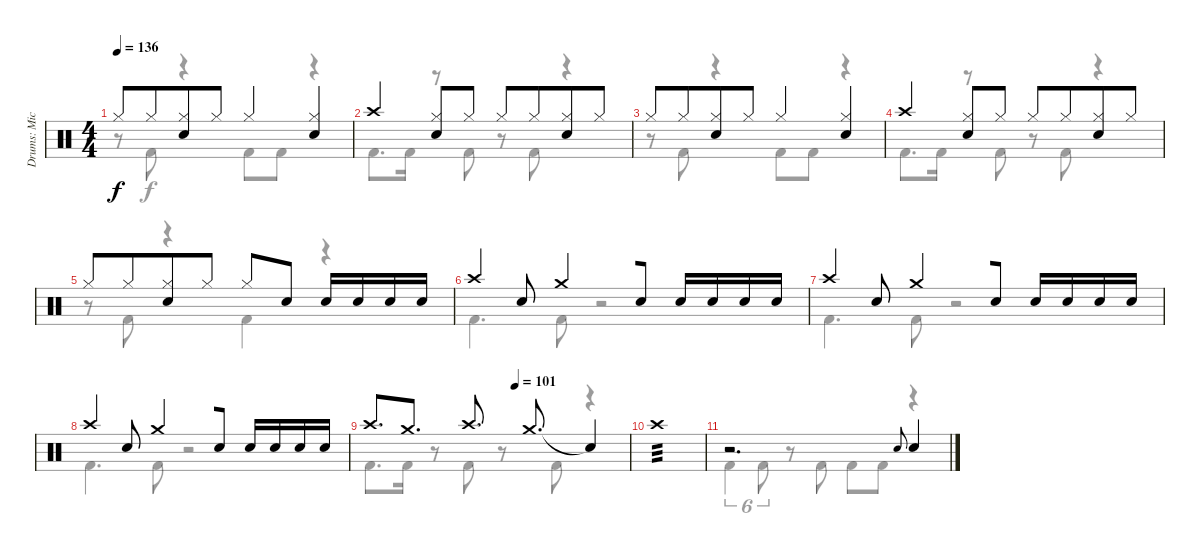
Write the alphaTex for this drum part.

\track ("Drums: Mick" "Drums: Mic") {instrument percussion}
\staff {score}
\articulation defaults
\voice
\ts (4 4)
\tempo 136
\clef neutral
\ks c "Hi-Hat (closed)".8{dy f} "Hi-Hat (closed)".8{beam merge}
("Hi-Hat (closed)" "Snare (hit) 2").8 "Hi-Hat (closed)".8 "Hi-Hat (closed)".4{beam merge} ("Hi-Hat (closed)" "Snare (hit) 2").4 |
"Crash high (hit)".4 ("Hi-Hat (closed)" "Snare (hit) 2").8 "Hi-Hat (closed)".8 "Hi-Hat (closed)".8 "Hi-Hat (closed)".8{beam merge} ("Hi-Hat (closed)" "Snare (hit) 2").8 "Hi-Hat (closed)".8 |
"Hi-Hat (closed)".8 "Hi-Hat (closed)".8{beam merge} ("Hi-Hat (closed)" "Snare (hit) 2").8 "Hi-Hat (closed)".8 "Hi-Hat (closed)".4{beam merge} ("Hi-Hat (closed)" "Snare (hit) 2").4 |
"Crash high (hit)".4 ("Hi-Hat (closed)" "Snare (hit) 2").8 "Hi-Hat (closed)".8 "Hi-Hat (closed)".8 "Hi-Hat (closed)".8{beam merge} ("Hi-Hat (closed)" "Snare (hit) 2").8 "Hi-Hat (closed)".8 |
"Hi-Hat (closed)".8 "Hi-Hat (closed)".8{beam merge} ("Hi-Hat (closed)" "Snare (hit) 2").8 "Hi-Hat (closed)".8 "Hi-Hat (closed)".8{beam merge} "Snare (hit) 2".8 "Snare (hit) 2".16 "Snare (hit) 2".16 "Snare (hit) 2".16 "Snare (hit) 2".16 |
"Crash high (hit)".4 "Snare (hit) 2".8 "Crash medium (hit)".4{beam merge} "Snare (hit) 2".8 "Snare (hit) 2".16 "Snare (hit) 2".16 "Snare (hit) 2".16 "Snare (hit) 2".16 |
"Crash high (hit)".4 "Snare (hit) 2".8 "Crash medium (hit)".4{beam merge} "Snare (hit) 2".8 "Snare (hit) 2".16 "Snare (hit) 2".16 "Snare (hit) 2".16 "Snare (hit) 2".16 |
"Crash high (hit)".4 "Snare (hit) 2".8 "Crash medium (hit)".4{beam merge} "Snare (hit) 2".8 "Snare (hit) 2".16 "Snare (hit) 2".16 "Snare (hit) 2".16 "Snare (hit) 2".16 |
\tempo (101 0.5625)
"Crash high (hit)".8{d} "Crash medium (hit)".8{d} "Crash high (hit)".8{d} "Crash medium (hit)".8{d} "Snare (hit)"{t}.4 |
"Crash high (hit)".1{tp 3} |
r.2{d} "Electric Snare (hit)".8{gr onbeat} "Snare (hit) 2".4
\voice
\clef neutral
\ottava regular
\simile none
\ks c
r.8{dy f} "Kick (hit) 2".8 r.4 "Kick (hit) 2".8 "Kick (hit) 2".8 r.4 |
"Kick (hit) 2".8{d} "Kick (hit) 2".16 r.8 "Kick (hit) 2".8 r.8 "Kick (hit) 2".8 r.4 |
r.8 "Kick (hit) 2".8 r.4 "Kick (hit) 2".8 "Kick (hit) 2".8 r.4 |
"Kick (hit) 2".8{d} "Kick (hit) 2".16 r.8 "Kick (hit) 2".8 r.8 "Kick (hit) 2".8 r.4 |
r.8 "Kick (hit) 2".8 r.4 "Kick (hit) 2".4 r.4 |
"Kick (hit) 2".4{d} "Kick (hit) 2".8 r.2 |
"Kick (hit) 2".4{d} "Kick (hit) 2".8 r.2 |
"Kick (hit) 2".4{d} "Kick (hit) 2".8 r.2 |
"Kick (hit) 2".8{d} "Kick (hit) 2".16 r.8 "Kick (hit) 2".8 r.8 "Kick (hit) 2".8 r.4 |
|
"Kick (hit) 2".4{tu (6 4)} "Kick (hit) 2".8{tu (6 4)} r.8 "Kick (hit) 2".8 "Kick (hit) 2".8 "Kick (hit) 2".8 r.4
